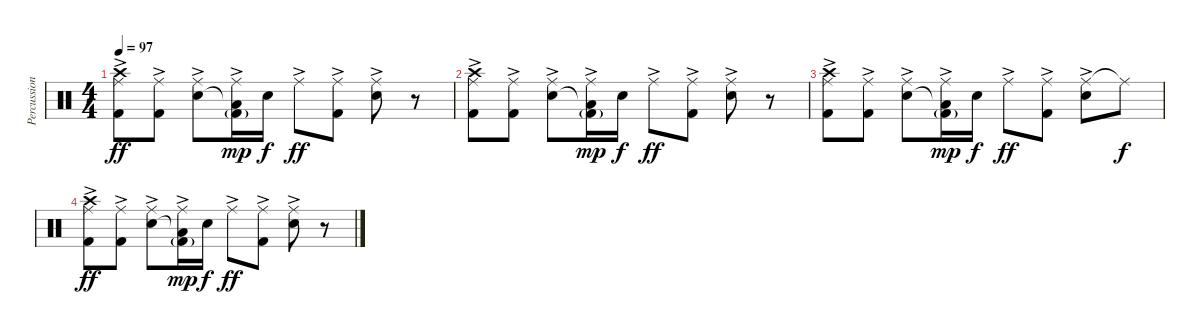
\track ("Percussion" "Percussion") {instrument percussion}
\staff {score}
\articulation defaults
\ts (4 4)
\tempo 97
\clef neutral
\ks c
("Ride (middle)"{ac} "Crash high (hit)" "Kick (hit) 2").8{dy ff} ("Ride (middle)"{ac} "Kick (hit) 2").8 ("Ride (middle)"{ac} "Snare (hit) 2").8 ("Ride (middle)"{ac} "Low Floor Tom (hit)"{t} "Kick (hit) 2"{g}).16{dy mp} "Snare (hit) 2".16{dy f} "Ride (middle)"{ac}.8{dy ff} ("Ride (middle)"{ac} "Kick (hit) 2").8 ("Ride (middle)"{ac} "Snare (hit) 2").8 r.8 |
("Ride (middle)"{ac} "Crash high (hit)" "Kick (hit) 2").8 ("Ride (middle)"{ac} "Kick (hit) 2").8 ("Ride (middle)"{ac} "Snare (hit) 2").8 ("Ride (middle)"{ac} "Low Floor Tom (hit)"{t} "Kick (hit) 2"{g}).16{dy mp} "Snare (hit) 2".16{dy f} "Ride (middle)"{ac}.8{dy ff} ("Ride (middle)"{ac} "Kick (hit) 2").8 ("Ride (middle)"{ac} "Snare (hit) 2").8 r.8 |
("Ride (middle)"{ac} "Crash high (hit)" "Kick (hit) 2").8 ("Ride (middle)"{ac} "Kick (hit) 2").8 ("Ride (middle)"{ac} "Snare (hit) 2").8 ("Ride (middle)"{ac} "Low Floor Tom (hit)"{t} "Kick (hit) 2"{g}).16{dy mp} "Snare (hit) 2".16{dy f} "Ride (middle)"{ac}.8{dy ff} ("Ride (middle)"{ac} "Kick (hit) 2").8 ("Ride (middle)"{ac} "Snare (hit) 2").8 "Ride (middle)"{t}.8{dy f} |
("Ride (middle)"{ac} "Crash high (hit)" "Kick (hit) 2").8{dy ff} ("Ride (middle)"{ac} "Kick (hit) 2").8 ("Ride (middle)"{ac} "Snare (hit) 2").8 ("Ride (middle)"{ac} "Low Floor Tom (hit)"{t} "Kick (hit) 2"{g}).16{dy mp} "Snare (hit) 2".16{dy f} "Ride (middle)"{ac}.8{dy ff} ("Ride (middle)"{ac} "Kick (hit) 2").8 ("Ride (middle)"{ac} "Snare (hit) 2").8 r.8
